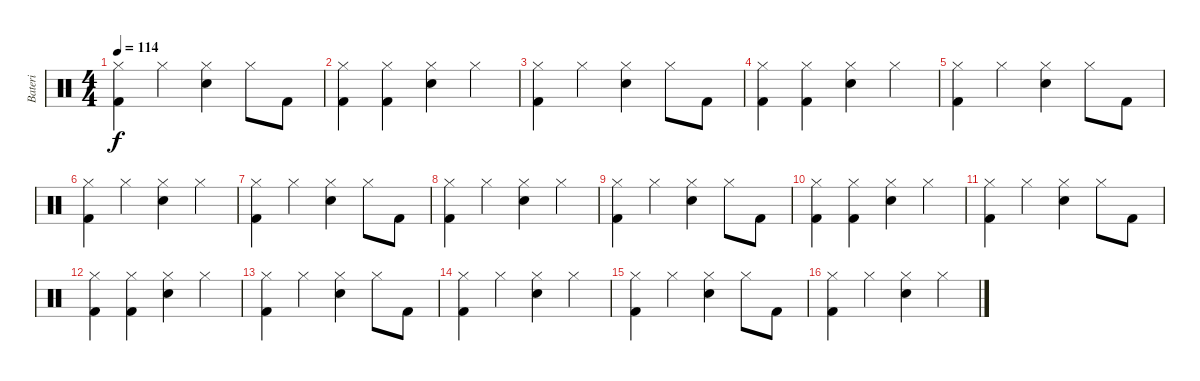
\track ("Bateri" "Bateri") {instrument percussion}
\staff {score}
\articulation defaults
\ts (4 4)
\tempo 114
\clef neutral
\ks c
("Hi-Hat (closed)" "Kick (hit) 2").4{dy f} "Hi-Hat (closed)".4 ("Hi-Hat (closed)" "Snare (hit) 2").4 "Hi-Hat (closed)".8 "Kick (hit) 2".8 |
("Hi-Hat (closed)" "Kick (hit) 2").4 ("Hi-Hat (closed)" "Kick (hit) 2").4 ("Hi-Hat (closed)" "Snare (hit) 2").4 "Hi-Hat (closed)".4 |
("Hi-Hat (closed)" "Kick (hit) 2").4 "Hi-Hat (closed)".4 ("Hi-Hat (closed)" "Snare (hit) 2").4 "Hi-Hat (closed)".8 "Kick (hit) 2".8 |
("Hi-Hat (closed)" "Kick (hit) 2").4 ("Hi-Hat (closed)" "Kick (hit) 2").4 ("Hi-Hat (closed)" "Snare (hit) 2").4 "Hi-Hat (closed)".4 |
("Hi-Hat (closed)" "Kick (hit) 2").4 "Hi-Hat (closed)".4 ("Hi-Hat (closed)" "Snare (hit) 2").4 "Hi-Hat (closed)".8 "Kick (hit) 2".8 |
("Hi-Hat (closed)" "Kick (hit) 2").4 "Hi-Hat (closed)".4 ("Hi-Hat (closed)" "Snare (hit) 2").4 "Hi-Hat (closed)".4 |
("Hi-Hat (closed)" "Kick (hit) 2").4 "Hi-Hat (closed)".4 ("Hi-Hat (closed)" "Snare (hit) 2").4 "Hi-Hat (closed)".8 "Kick (hit) 2".8 |
("Hi-Hat (closed)" "Kick (hit) 2").4 "Hi-Hat (closed)".4 ("Hi-Hat (closed)" "Snare (hit) 2").4 "Hi-Hat (closed)".4 |
("Hi-Hat (closed)" "Kick (hit) 2").4 "Hi-Hat (closed)".4 ("Hi-Hat (closed)" "Snare (hit) 2").4 "Hi-Hat (closed)".8 "Kick (hit) 2".8 |
("Hi-Hat (closed)" "Kick (hit) 2").4 ("Hi-Hat (closed)" "Kick (hit) 2").4 ("Hi-Hat (closed)" "Snare (hit) 2").4 "Hi-Hat (closed)".4 |
("Hi-Hat (closed)" "Kick (hit) 2").4 "Hi-Hat (closed)".4 ("Hi-Hat (closed)" "Snare (hit) 2").4 "Hi-Hat (closed)".8 "Kick (hit) 2".8 |
("Hi-Hat (closed)" "Kick (hit) 2").4 ("Hi-Hat (closed)" "Kick (hit) 2").4 ("Hi-Hat (closed)" "Snare (hit) 2").4 "Hi-Hat (closed)".4 |
("Hi-Hat (closed)" "Kick (hit) 2").4 "Hi-Hat (closed)".4 ("Hi-Hat (closed)" "Snare (hit) 2").4 "Hi-Hat (closed)".8 "Kick (hit) 2".8 |
("Hi-Hat (closed)" "Kick (hit) 2").4 "Hi-Hat (closed)".4 ("Hi-Hat (closed)" "Snare (hit) 2").4 "Hi-Hat (closed)".4 |
("Hi-Hat (closed)" "Kick (hit) 2").4 "Hi-Hat (closed)".4 ("Hi-Hat (closed)" "Snare (hit) 2").4 "Hi-Hat (closed)".8 "Kick (hit) 2".8 |
("Hi-Hat (closed)" "Kick (hit) 2").4 "Hi-Hat (closed)".4 ("Hi-Hat (closed)" "Snare (hit) 2").4 "Hi-Hat (closed)".4
